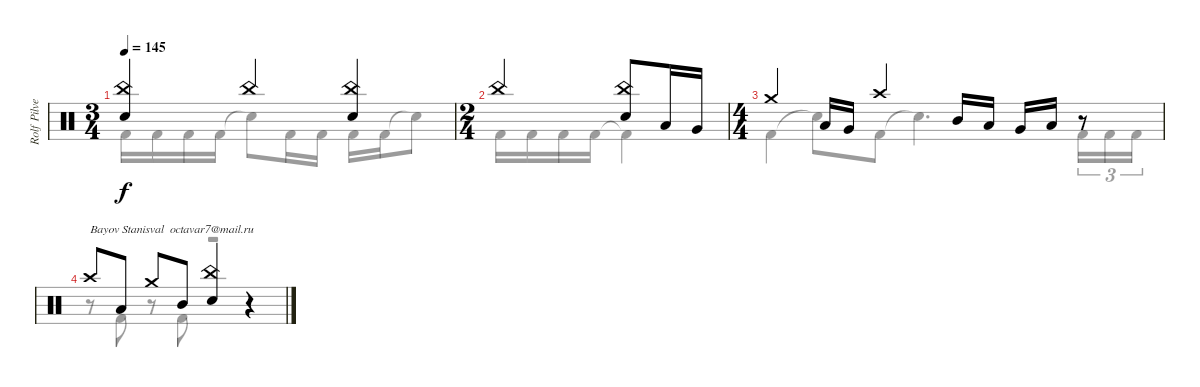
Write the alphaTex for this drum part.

\track ("Rolf Pilve - drums" "Rolf Pilve") {instrument percussion}
\staff {score}
\articulation defaults
\voice
\ts (3 4)
\tempo 145
\clef neutral
\ks aminor
("China (hit)" "Electric Snare (hit)").4{dy f} "China (hit)".4 ("China (hit)" "Electric Snare (hit)").4 |
\ts (2 4)
"China (hit)".4 ("China (hit)" "Electric Snare (hit)").8 "Low Tom (hit)".16 "Very Low Tom (hit)".16 |
\ts (4 4)
"Crash medium (hit)".4 "Low Tom (hit)".16 "Very Low Tom (hit)".16 "Crash high (hit)".4 "Mid Tom (hit)".16 "Low Tom (hit)".16 "Very Low Tom (hit)".16 "Low Floor Tom (hit)".16 r.8 |
"Crash high (hit)".8{txt "Bayov Stanisval  octavar7@mail.ru"} "Low Tom (hit)".8 "Crash medium (hit)".8 "Mid Tom (hit)".8 ("Electric Snare (hit)" "China (hit)").4 r.4
\voice
\clef neutral
\ottava regular
\simile none
\ks aminor "Kick (hit) 2".16{dy f} "Kick (hit) 2".16 "Kick (hit) 2".16 "Kick (hit) 2".16 "Snare (hit)"{t}.8 "Kick (hit) 2".16 "Kick (hit) 2".16 "Kick (hit) 2".16 "Kick (hit) 2".16 "Snare (hit)"{t}.8
|
"Kick (hit) 2".16 "Kick (hit) 2".16 "Kick (hit) 2".16 "Kick (hit) 2".16 "Kick (hit) 2"{t}.4 |
"Kick (hit) 2".4 "Snare (hit)"{t}.8 "Kick (hit) 2".8 "Snare (hit)"{t}.4{d} "Kick (hit) 2".16{tu (3 2)} "Kick (hit) 2".16{tu (3 2)} "Kick (hit) 2".16{tu (3 2)} |
r.8 "Kick (hit) 2".8 r.8 "Kick (hit) 2".8 r.2
